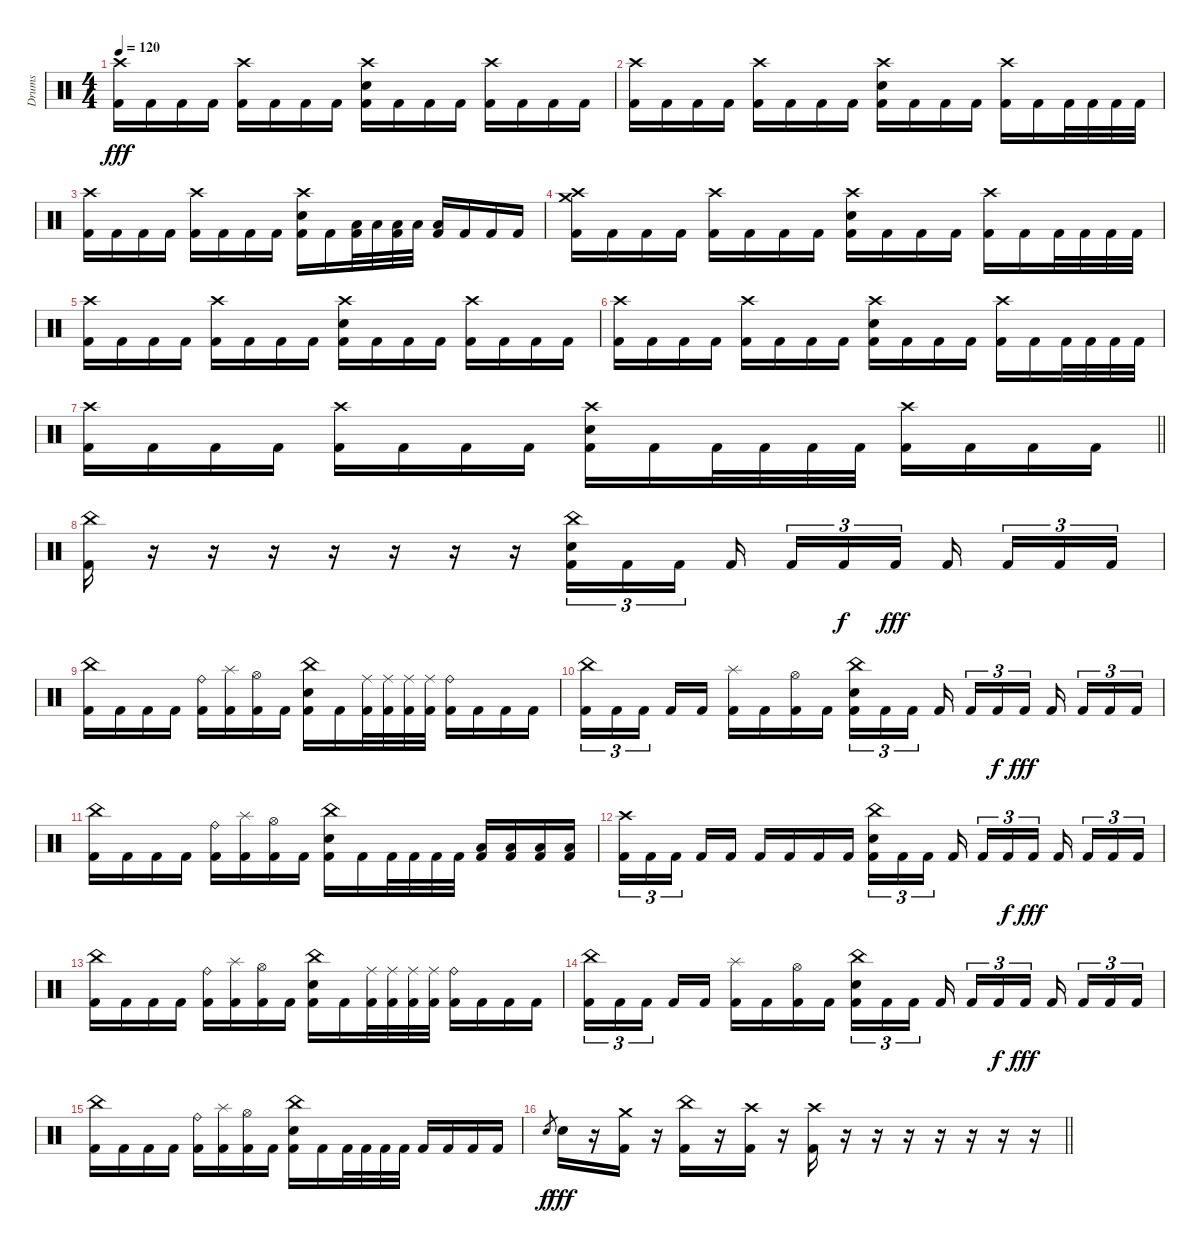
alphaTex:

\track ("Drums" "Drums") {instrument percussion}
\staff {score}
\articulation defaults
\ts (4 4)
\tempo 120
\clef neutral
\ks c
("Crash high (hit)" "Kick (hit) 2").16{dy fff} "Kick (hit) 2".16 "Kick (hit) 2".16 "Kick (hit) 2".16 ("Crash high (hit)" "Kick (hit) 2").16 "Kick (hit) 2".16 "Kick (hit) 2".16 "Kick (hit) 2".16 ("Crash high (hit)" "Electric Snare (hit)" "Kick (hit) 2").16 "Kick (hit) 2".16 "Kick (hit) 2".16 "Kick (hit) 2".16 ("Crash high (hit)" "Kick (hit) 2").16 "Kick (hit) 2".16 "Kick (hit) 2".16 "Kick (hit) 2".16 |
("Crash high (hit)" "Kick (hit) 2").16 "Kick (hit) 2".16 "Kick (hit) 2".16 "Kick (hit) 2".16 ("Crash high (hit)" "Kick (hit) 2").16 "Kick (hit) 2".16 "Kick (hit) 2".16 "Kick (hit) 2".16 ("Crash high (hit)" "Electric Snare (hit)" "Kick (hit) 2").16 "Kick (hit) 2".16 "Kick (hit) 2".16 "Kick (hit) 2".16 ("Crash high (hit)" "Kick (hit) 2").16 "Kick (hit) 2".16 "Kick (hit) 2".32 "Kick (hit) 2".32 "Kick (hit) 2".32 "Kick (hit) 2".32 |
("Crash high (hit)" "Kick (hit) 2").16 "Kick (hit) 2".16 "Kick (hit) 2".16 "Kick (hit) 2".16 ("Crash high (hit)" "Kick (hit) 2").16 "Kick (hit) 2".16 "Kick (hit) 2".16 "Kick (hit) 2".16 ("Crash high (hit)" "Electric Snare (hit)" "Kick (hit) 2").16 "Kick (hit) 2".16 ("Low Tom (hit)" "Kick (hit) 2").32 "Low Tom (hit)".32 ("Low Tom (hit)" "Kick (hit) 2").32 "Low Tom (hit)".32 ("Low Floor Tom (hit)" "Kick (hit) 2").16 "Kick (hit) 2".16 "Kick (hit) 2".16 "Kick (hit) 2".16 |
("Crash high (hit)" "Crash medium (hit)" "Kick (hit) 2").16 "Kick (hit) 2".16 "Kick (hit) 2".16 "Kick (hit) 2".16 ("Crash high (hit)" "Kick (hit) 2").16 "Kick (hit) 2".16 "Kick (hit) 2".16 "Kick (hit) 2".16 ("Crash high (hit)" "Electric Snare (hit)" "Kick (hit) 2").16 "Kick (hit) 2".16 "Kick (hit) 2".16 "Kick (hit) 2".16 ("Crash high (hit)" "Kick (hit) 2").16 "Kick (hit) 2".16 "Kick (hit) 2".32 "Kick (hit) 2".32 "Kick (hit) 2".32 "Kick (hit) 2".32 |
("Crash high (hit)" "Kick (hit) 2").16 "Kick (hit) 2".16 "Kick (hit) 2".16 "Kick (hit) 2".16 ("Crash high (hit)" "Kick (hit) 2").16 "Kick (hit) 2".16 "Kick (hit) 2".16 "Kick (hit) 2".16 ("Crash high (hit)" "Electric Snare (hit)" "Kick (hit) 2").16 "Kick (hit) 2".16 "Kick (hit) 2".16 "Kick (hit) 2".16 ("Crash high (hit)" "Kick (hit) 2").16 "Kick (hit) 2".16 "Kick (hit) 2".16 "Kick (hit) 2".16 |
("Crash high (hit)" "Kick (hit) 2").16 "Kick (hit) 2".16 "Kick (hit) 2".16 "Kick (hit) 2".16 ("Crash high (hit)" "Kick (hit) 2").16 "Kick (hit) 2".16 "Kick (hit) 2".16 "Kick (hit) 2".16 ("Crash high (hit)" "Electric Snare (hit)" "Kick (hit) 2").16 "Kick (hit) 2".16 "Kick (hit) 2".16 "Kick (hit) 2".16 ("Crash high (hit)" "Kick (hit) 2").16 "Kick (hit) 2".16 "Kick (hit) 2".32 "Kick (hit) 2".32 "Kick (hit) 2".32 "Kick (hit) 2".32 |
\barLineRight lightlight
("Crash high (hit)" "Kick (hit) 2").16 "Kick (hit) 2".16 "Kick (hit) 2".16 "Kick (hit) 2".16 ("Crash high (hit)" "Kick (hit) 2").16 "Kick (hit) 2".16 "Kick (hit) 2".16 "Kick (hit) 2".16 ("Crash high (hit)" "Electric Snare (hit)" "Kick (hit) 2").16 "Kick (hit) 2".16 "Kick (hit) 2".32 "Kick (hit) 2".32 "Kick (hit) 2".32 "Kick (hit) 2".32 ("Crash high (hit)" "Kick (hit) 2").16 "Kick (hit) 2".16 "Kick (hit) 2".16 "Kick (hit) 2".16 |
\section ("" "")
("China (hit)" "Kick (hit) 2").16 r.16 r.16{volume 0} r.16 r.16 r.16 r.16 r.16{volume 12} ("China (hit)" "Electric Snare (hit)" "Kick (hit) 2").16{tu (3 2)} "Kick (hit) 2".16{tu (3 2)} "Kick (hit) 2".16{tu (3 2) beam splitsecondary} "Kick (hit) 2".16{beam splitsecondary} "Kick (hit) 2".16{tu (3 2)} "Kick (hit) 2".16{tu (3 2) dy f} "Kick (hit) 2".16{tu (3 2) dy fff beam splitsecondary} "Kick (hit) 2".16{beam splitsecondary} "Kick (hit) 2".16{tu (3 2)} "Kick (hit) 2".16{tu (3 2)} "Kick (hit) 2".16{tu (3 2)} |
("China (hit)" "Kick (hit) 2").16 "Kick (hit) 2".16 "Kick (hit) 2".16 "Kick (hit) 2".16 ("Ride (bell)" "Kick (hit) 2").16 ("Splash (hit)" "Kick (hit) 2").16 ("Hi-Hat (open)" "Kick (hit) 2").16 "Kick (hit) 2".16 ("China (hit)" "Electric Snare (hit)" "Kick (hit) 2").16 "Kick (hit) 2".16 ("Ride (middle)" "Kick (hit) 2").32 ("Ride (middle)" "Kick (hit) 2").32 ("Ride (middle)" "Kick (hit) 2").32 ("Ride (middle)" "Kick (hit) 2").32 ("Ride (bell)" "Kick (hit) 2").16 "Kick (hit) 2".16 "Kick (hit) 2".16 "Kick (hit) 2".16 |
("China (hit)" "Kick (hit) 2").16{tu (3 2)} "Kick (hit) 2".16{tu (3 2)} "Kick (hit) 2".16{tu (3 2) beam splitsecondary} "Kick (hit) 2".16 "Kick (hit) 2".16 ("Splash (hit)" "Kick (hit) 2").16 "Kick (hit) 2".16 ("Hi-Hat (open)" "Kick (hit) 2").16 "Kick (hit) 2".16 ("China (hit)" "Electric Snare (hit)" "Kick (hit) 2").16{tu (3 2)} "Kick (hit) 2".16{tu (3 2)} "Kick (hit) 2".16{tu (3 2) beam splitsecondary} "Kick (hit) 2".16{beam splitsecondary} "Kick (hit) 2".16{tu (3 2)} "Kick (hit) 2".16{tu (3 2) dy f} "Kick (hit) 2".16{tu (3 2) dy fff beam splitsecondary} "Kick (hit) 2".16{beam splitsecondary} "Kick (hit) 2".16{tu (3 2)} "Kick (hit) 2".16{tu (3 2)} "Kick (hit) 2".16{tu (3 2)} |
("China (hit)" "Kick (hit) 2").16 "Kick (hit) 2".16 "Kick (hit) 2".16 "Kick (hit) 2".16 ("Ride (bell)" "Kick (hit) 2").16 ("Splash (hit)" "Kick (hit) 2").16 ("Hi-Hat (open)" "Kick (hit) 2").16 "Kick (hit) 2".16 ("China (hit)" "Electric Snare (hit)" "Kick (hit) 2").16 "Kick (hit) 2".16 "Kick (hit) 2".32 "Kick (hit) 2".32 "Kick (hit) 2".32 "Kick (hit) 2".32 ("Low Tom (hit)" "Kick (hit) 2").16 ("Low Tom (hit)" "Kick (hit) 2").16 ("Low Floor Tom (hit)" "Kick (hit) 2").16 ("Low Floor Tom (hit)" "Kick (hit) 2").16 |
("Crash high (hit)" "Kick (hit) 2").16{tu (3 2)} "Kick (hit) 2".16{tu (3 2)} "Kick (hit) 2".16{tu (3 2) beam splitsecondary} "Kick (hit) 2".16 "Kick (hit) 2".16 "Kick (hit) 2".16 "Kick (hit) 2".16 "Kick (hit) 2".16 "Kick (hit) 2".16 ("China (hit)" "Electric Snare (hit)" "Kick (hit) 2").16{tu (3 2)} "Kick (hit) 2".16{tu (3 2)} "Kick (hit) 2".16{tu (3 2) beam splitsecondary} "Kick (hit) 2".16{beam splitsecondary} "Kick (hit) 2".16{tu (3 2)} "Kick (hit) 2".16{tu (3 2) dy f} "Kick (hit) 2".16{tu (3 2) dy fff beam splitsecondary} "Kick (hit) 2".16{beam splitsecondary} "Kick (hit) 2".16{tu (3 2)} "Kick (hit) 2".16{tu (3 2)} "Kick (hit) 2".16{tu (3 2)} |
("China (hit)" "Kick (hit) 2").16 "Kick (hit) 2".16 "Kick (hit) 2".16 "Kick (hit) 2".16 ("Ride (bell)" "Kick (hit) 2").16 ("Splash (hit)" "Kick (hit) 2").16 ("Hi-Hat (open)" "Kick (hit) 2").16 "Kick (hit) 2".16 ("China (hit)" "Electric Snare (hit)" "Kick (hit) 2").16 "Kick (hit) 2".16 ("Ride (middle)" "Kick (hit) 2").32 ("Ride (middle)" "Kick (hit) 2").32 ("Ride (middle)" "Kick (hit) 2").32 ("Ride (middle)" "Kick (hit) 2").32 ("Ride (bell)" "Kick (hit) 2").16 "Kick (hit) 2".16 "Kick (hit) 2".16 "Kick (hit) 2".16 |
("China (hit)" "Kick (hit) 2").16{tu (3 2)} "Kick (hit) 2".16{tu (3 2)} "Kick (hit) 2".16{tu (3 2) beam splitsecondary} "Kick (hit) 2".16 "Kick (hit) 2".16 ("Splash (hit)" "Kick (hit) 2").16 "Kick (hit) 2".16 ("Hi-Hat (open)" "Kick (hit) 2").16 "Kick (hit) 2".16 ("China (hit)" "Electric Snare (hit)" "Kick (hit) 2").16{tu (3 2)} "Kick (hit) 2".16{tu (3 2)} "Kick (hit) 2".16{tu (3 2) beam splitsecondary} "Kick (hit) 2".16{beam splitsecondary} "Kick (hit) 2".16{tu (3 2)} "Kick (hit) 2".16{tu (3 2) dy f} "Kick (hit) 2".16{tu (3 2) dy fff beam splitsecondary} "Kick (hit) 2".16{beam splitsecondary} "Kick (hit) 2".16{tu (3 2)} "Kick (hit) 2".16{tu (3 2)} "Kick (hit) 2".16{tu (3 2)} |
("China (hit)" "Kick (hit) 2").16 "Kick (hit) 2".16 "Kick (hit) 2".16 "Kick (hit) 2".16 ("Ride (bell)" "Kick (hit) 2").16 ("Splash (hit)" "Kick (hit) 2").16 ("Hi-Hat (open)" "Kick (hit) 2").16 "Kick (hit) 2".16 ("China (hit)" "Electric Snare (hit)" "Kick (hit) 2").16 "Kick (hit) 2".16 "Kick (hit) 2".32 "Kick (hit) 2".32 "Kick (hit) 2".32 "Kick (hit) 2".32 "Kick (hit) 2".16 "Kick (hit) 2".16 "Kick (hit) 2".16 "Kick (hit) 2".16 |
\barLineRight lightlight "Electric Snare (hit)".8{gr dy f} "Electric Snare (hit)".16{dy fff}
r.16 ("Crash medium (hit)" "Kick (hit) 2").16 r.16 ("China (hit)" "Kick (hit) 2").16 r.16 ("Crash high (hit)" "Kick (hit) 2").16 r.16 ("Crash high (hit)" "Kick (hit) 2").16 r.16 r.16 r.16 r.16 r.16 r.16 r.16
